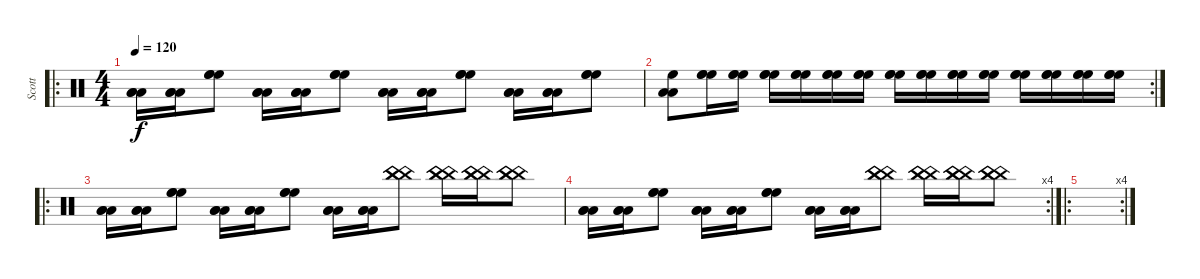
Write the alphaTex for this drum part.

\track ("Scott" "Scott") {instrument percussion}
\staff {score}
\articulation defaults
\ro
\ts (4 4)
\tempo 120
\clef neutral
\ks c
("Low Tom (hit)" "Low Tom (hit)" "Low Tom (hit)").16{dy f} ("Low Tom (hit)" "Low Tom (hit)" "Low Tom (hit)").16 ("High Floor Tom (hit)" "High Floor Tom (hit)" "High Floor Tom (hit)").8 ("Low Tom (hit)" "Low Tom (hit)" "Low Tom (hit)").16 ("Low Tom (hit)" "Low Tom (hit)" "Low Tom (hit)").16 ("High Floor Tom (hit)" "High Floor Tom (hit)" "High Floor Tom (hit)").8 ("Low Tom (hit)" "Low Tom (hit)" "Low Tom (hit)").16 ("Low Tom (hit)" "Low Tom (hit)" "Low Tom (hit)").16 ("High Floor Tom (hit)" "High Floor Tom (hit)" "High Floor Tom (hit)").8 ("Low Tom (hit)" "Low Tom (hit)" "Low Tom (hit)").16 ("Low Tom (hit)" "Low Tom (hit)" "Low Tom (hit)").16 ("High Floor Tom (hit)" "High Floor Tom (hit)" "High Floor Tom (hit)").8 |
\rc 2
("High Floor Tom (hit)" "Low Tom (hit)" "Low Tom (hit)").8 ("High Floor Tom (hit)" "High Floor Tom (hit)" "High Floor Tom (hit)").16 ("High Floor Tom (hit)" "High Floor Tom (hit)" "High Floor Tom (hit)").16 ("High Floor Tom (hit)" "High Floor Tom (hit)" "High Floor Tom (hit)").16 ("High Floor Tom (hit)" "High Floor Tom (hit)" "High Floor Tom (hit)").16 ("High Floor Tom (hit)" "High Floor Tom (hit)" "High Floor Tom (hit)").16 ("High Floor Tom (hit)" "High Floor Tom (hit)" "High Floor Tom (hit)").16 ("High Floor Tom (hit)" "High Floor Tom (hit)" "High Floor Tom (hit)").16 ("High Floor Tom (hit)" "High Floor Tom (hit)" "High Floor Tom (hit)").16 ("High Floor Tom (hit)" "High Floor Tom (hit)" "High Floor Tom (hit)").16 ("High Floor Tom (hit)" "High Floor Tom (hit)" "High Floor Tom (hit)").16 ("High Floor Tom (hit)" "High Floor Tom (hit)" "High Floor Tom (hit)").16 ("High Floor Tom (hit)" "High Floor Tom (hit)" "High Floor Tom (hit)").16 ("High Floor Tom (hit)" "High Floor Tom (hit)" "High Floor Tom (hit)").16 ("High Floor Tom (hit)" "High Floor Tom (hit)" "High Floor Tom (hit)").16 |
\ro
("Low Tom (hit)" "Low Tom (hit)" "Low Tom (hit)").16 ("Low Tom (hit)" "Low Tom (hit)" "Low Tom (hit)").16 ("High Floor Tom (hit)" "High Floor Tom (hit)" "High Floor Tom (hit)").8 ("Low Tom (hit)" "Low Tom (hit)" "Low Tom (hit)").16 ("Low Tom (hit)" "Low Tom (hit)" "Low Tom (hit)").16 ("High Floor Tom (hit)" "High Floor Tom (hit)" "High Floor Tom (hit)").8 ("Low Tom (hit)" "Low Tom (hit)" "Low Tom (hit)").16 ("Low Tom (hit)" "Low Tom (hit)" "Low Tom (hit)").16 ("China (hit)" "China (hit)" "China (hit)").8 ("China (hit)" "China (hit)" "China (hit)").16 ("China (hit)" "China (hit)" "China (hit)").16 ("China (hit)" "China (hit)" "China (hit)").8 |
\rc 4
("Low Tom (hit)" "Low Tom (hit)" "Low Tom (hit)").16 ("Low Tom (hit)" "Low Tom (hit)" "Low Tom (hit)").16 ("High Floor Tom (hit)" "High Floor Tom (hit)" "High Floor Tom (hit)").8 ("Low Tom (hit)" "Low Tom (hit)" "Low Tom (hit)").16 ("Low Tom (hit)" "Low Tom (hit)" "Low Tom (hit)").16 ("High Floor Tom (hit)" "High Floor Tom (hit)" "High Floor Tom (hit)").8 ("Low Tom (hit)" "Low Tom (hit)" "Low Tom (hit)").16 ("Low Tom (hit)" "Low Tom (hit)" "Low Tom (hit)").16 ("China (hit)" "China (hit)" "China (hit)").8 ("China (hit)" "China (hit)" "China (hit)").16 ("China (hit)" "China (hit)" "China (hit)").16 ("China (hit)" "China (hit)" "China (hit)").8 |
\ro
\rc 4
